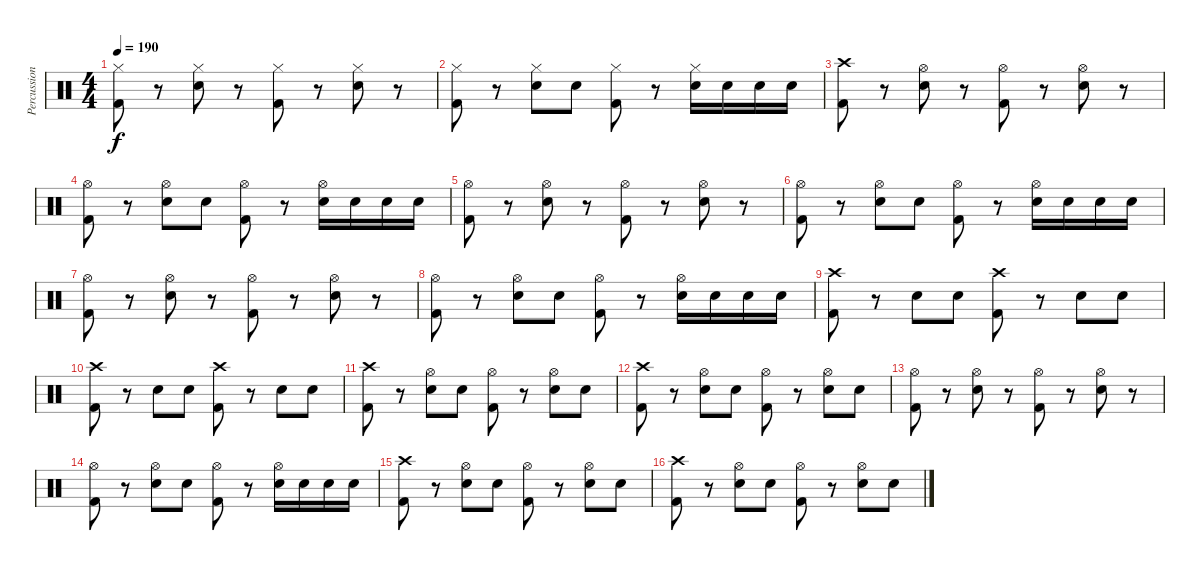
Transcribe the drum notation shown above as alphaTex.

\track ("Percussioni" "Percussion") {instrument percussion}
\staff {score}
\articulation defaults
\ts (4 4)
\tempo 190
\clef neutral
\ks c
("Kick (hit) 2" "Hi-Hat (closed)").8{dy f} r.8 ("Electric Snare (hit)" "Hi-Hat (closed)").8 r.8 ("Kick (hit) 2" "Hi-Hat (closed)").8 r.8 ("Electric Snare (hit)" "Hi-Hat (closed)").8 r.8 |
("Kick (hit) 2" "Hi-Hat (closed)").8 r.8 ("Electric Snare (hit)" "Hi-Hat (closed)").8 "Electric Snare (hit)".8 ("Kick (hit) 2" "Hi-Hat (closed)").8 r.8 ("Electric Snare (hit)" "Hi-Hat (closed)").16 "Electric Snare (hit)".16 "Electric Snare (hit)".16 "Electric Snare (hit)".16 |
("Kick (hit) 2" "Crash high (hit)").8 r.8 ("Electric Snare (hit)" "Hi-Hat (open)").8 r.8 ("Kick (hit) 2" "Hi-Hat (open)").8 r.8 ("Electric Snare (hit)" "Hi-Hat (open)").8 r.8 |
("Kick (hit) 2" "Hi-Hat (open)").8 r.8 ("Electric Snare (hit)" "Hi-Hat (open)").8 "Electric Snare (hit)".8 ("Kick (hit) 2" "Hi-Hat (open)").8 r.8 ("Electric Snare (hit)" "Hi-Hat (open)").16 "Electric Snare (hit)".16 "Electric Snare (hit)".16 "Electric Snare (hit)".16 |
("Kick (hit) 2" "Hi-Hat (open)").8 r.8 ("Electric Snare (hit)" "Hi-Hat (open)").8 r.8 ("Kick (hit) 2" "Hi-Hat (open)").8 r.8 ("Electric Snare (hit)" "Hi-Hat (open)").8 r.8 |
("Kick (hit) 2" "Hi-Hat (open)").8 r.8 ("Electric Snare (hit)" "Hi-Hat (open)").8 "Electric Snare (hit)".8 ("Kick (hit) 2" "Hi-Hat (open)").8 r.8 ("Electric Snare (hit)" "Hi-Hat (open)").16 "Electric Snare (hit)".16 "Electric Snare (hit)".16 "Electric Snare (hit)".16 |
("Kick (hit) 2" "Hi-Hat (open)").8 r.8 ("Electric Snare (hit)" "Hi-Hat (open)").8 r.8 ("Kick (hit) 2" "Hi-Hat (open)").8 r.8 ("Electric Snare (hit)" "Hi-Hat (open)").8 r.8 |
("Kick (hit) 2" "Hi-Hat (open)").8 r.8 ("Electric Snare (hit)" "Hi-Hat (open)").8 "Electric Snare (hit)".8 ("Kick (hit) 2" "Hi-Hat (open)").8 r.8 ("Electric Snare (hit)" "Hi-Hat (open)").16 "Electric Snare (hit)".16 "Electric Snare (hit)".16 "Electric Snare (hit)".16 |
("Kick (hit) 2" "Crash high (hit)").8 r.8 "Electric Snare (hit)".8 "Electric Snare (hit)".8 ("Kick (hit) 2" "Crash high (hit)").8 r.8 "Electric Snare (hit)".8 "Electric Snare (hit)".8 |
("Kick (hit) 2" "Crash high (hit)").8 r.8 "Electric Snare (hit)".8 "Electric Snare (hit)".8 ("Kick (hit) 2" "Crash high (hit)").8 r.8 "Electric Snare (hit)".8 "Electric Snare (hit)".8 |
("Kick (hit) 2" "Crash high (hit)").8 r.8 ("Electric Snare (hit)" "Hi-Hat (open)").8 "Electric Snare (hit)".8 ("Kick (hit) 2" "Hi-Hat (open)").8 r.8 ("Electric Snare (hit)" "Hi-Hat (open)").8 "Electric Snare (hit)".8 |
("Kick (hit) 2" "Crash high (hit)").8 r.8 ("Electric Snare (hit)" "Hi-Hat (open)").8 "Electric Snare (hit)".8 ("Kick (hit) 2" "Hi-Hat (open)").8 r.8 ("Electric Snare (hit)" "Hi-Hat (open)").8 "Electric Snare (hit)".8 |
("Kick (hit) 2" "Hi-Hat (open)").8 r.8 ("Electric Snare (hit)" "Hi-Hat (open)").8 r.8 ("Kick (hit) 2" "Hi-Hat (open)").8 r.8 ("Electric Snare (hit)" "Hi-Hat (open)").8 r.8 |
("Kick (hit) 2" "Hi-Hat (open)").8 r.8 ("Electric Snare (hit)" "Hi-Hat (open)").8 "Electric Snare (hit)".8 ("Kick (hit) 2" "Hi-Hat (open)").8 r.8 ("Electric Snare (hit)" "Hi-Hat (open)").16 "Electric Snare (hit)".16 "Electric Snare (hit)".16 "Electric Snare (hit)".16 |
("Kick (hit) 2" "Crash high (hit)").8 r.8 ("Electric Snare (hit)" "Hi-Hat (open)").8 "Electric Snare (hit)".8 ("Kick (hit) 2" "Hi-Hat (open)").8 r.8 ("Electric Snare (hit)" "Hi-Hat (open)").8 "Electric Snare (hit)".8 |
("Kick (hit) 2" "Crash high (hit)").8 r.8 ("Electric Snare (hit)" "Hi-Hat (open)").8 "Electric Snare (hit)".8 ("Kick (hit) 2" "Hi-Hat (open)").8 r.8 ("Electric Snare (hit)" "Hi-Hat (open)").8 "Electric Snare (hit)".8
